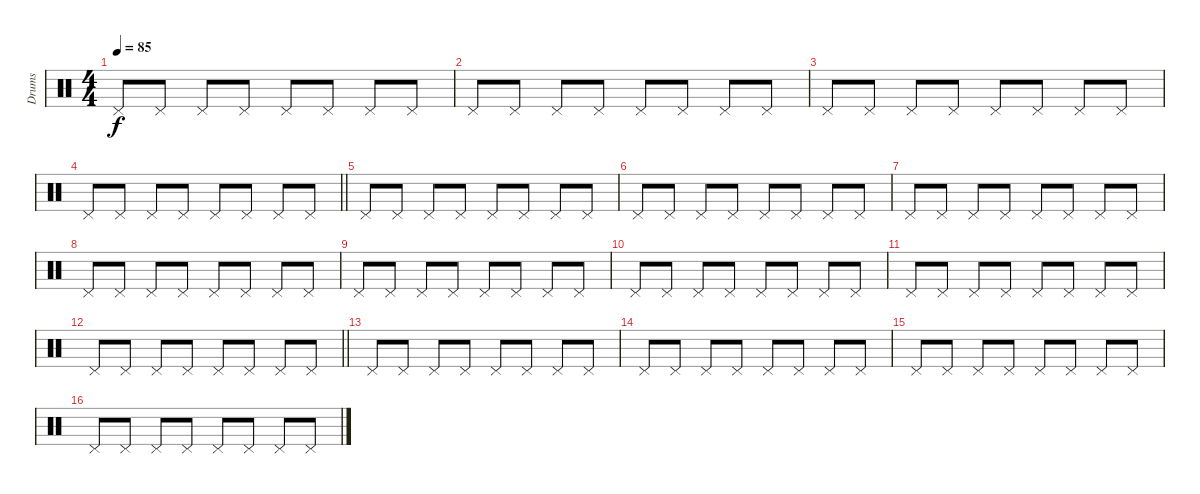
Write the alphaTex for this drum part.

\track ("Drums" "Drums") {solo instrument percussion}
\staff {score}
\articulation defaults
\ts (4 4)
\tempo 85
\clef neutral
\ks c "Pedal Hi-Hat (hit)".8{dy f} "Pedal Hi-Hat (hit)".8 "Pedal Hi-Hat (hit)".8 "Pedal Hi-Hat (hit)".8 "Pedal Hi-Hat (hit)".8 "Pedal Hi-Hat (hit)".8 "Pedal Hi-Hat (hit)".8 "Pedal Hi-Hat (hit)".8
|
"Pedal Hi-Hat (hit)".8 "Pedal Hi-Hat (hit)".8 "Pedal Hi-Hat (hit)".8 "Pedal Hi-Hat (hit)".8 "Pedal Hi-Hat (hit)".8 "Pedal Hi-Hat (hit)".8 "Pedal Hi-Hat (hit)".8 "Pedal Hi-Hat (hit)".8 |
"Pedal Hi-Hat (hit)".8 "Pedal Hi-Hat (hit)".8 "Pedal Hi-Hat (hit)".8 "Pedal Hi-Hat (hit)".8 "Pedal Hi-Hat (hit)".8 "Pedal Hi-Hat (hit)".8 "Pedal Hi-Hat (hit)".8 "Pedal Hi-Hat (hit)".8 |
\barLineRight lightlight "Pedal Hi-Hat (hit)".8 "Pedal Hi-Hat (hit)".8 "Pedal Hi-Hat (hit)".8 "Pedal Hi-Hat (hit)".8 "Pedal Hi-Hat (hit)".8 "Pedal Hi-Hat (hit)".8 "Pedal Hi-Hat (hit)".8 "Pedal Hi-Hat (hit)".8
|
\section ("" "")
"Pedal Hi-Hat (hit)".8 "Pedal Hi-Hat (hit)".8 "Pedal Hi-Hat (hit)".8 "Pedal Hi-Hat (hit)".8 "Pedal Hi-Hat (hit)".8 "Pedal Hi-Hat (hit)".8 "Pedal Hi-Hat (hit)".8 "Pedal Hi-Hat (hit)".8 |
"Pedal Hi-Hat (hit)".8 "Pedal Hi-Hat (hit)".8 "Pedal Hi-Hat (hit)".8 "Pedal Hi-Hat (hit)".8 "Pedal Hi-Hat (hit)".8 "Pedal Hi-Hat (hit)".8 "Pedal Hi-Hat (hit)".8 "Pedal Hi-Hat (hit)".8 |
"Pedal Hi-Hat (hit)".8 "Pedal Hi-Hat (hit)".8 "Pedal Hi-Hat (hit)".8 "Pedal Hi-Hat (hit)".8 "Pedal Hi-Hat (hit)".8 "Pedal Hi-Hat (hit)".8 "Pedal Hi-Hat (hit)".8 "Pedal Hi-Hat (hit)".8 |
"Pedal Hi-Hat (hit)".8 "Pedal Hi-Hat (hit)".8 "Pedal Hi-Hat (hit)".8 "Pedal Hi-Hat (hit)".8 "Pedal Hi-Hat (hit)".8 "Pedal Hi-Hat (hit)".8 "Pedal Hi-Hat (hit)".8 "Pedal Hi-Hat (hit)".8 |
"Pedal Hi-Hat (hit)".8 "Pedal Hi-Hat (hit)".8 "Pedal Hi-Hat (hit)".8 "Pedal Hi-Hat (hit)".8 "Pedal Hi-Hat (hit)".8 "Pedal Hi-Hat (hit)".8 "Pedal Hi-Hat (hit)".8 "Pedal Hi-Hat (hit)".8 |
"Pedal Hi-Hat (hit)".8 "Pedal Hi-Hat (hit)".8 "Pedal Hi-Hat (hit)".8 "Pedal Hi-Hat (hit)".8 "Pedal Hi-Hat (hit)".8 "Pedal Hi-Hat (hit)".8 "Pedal Hi-Hat (hit)".8 "Pedal Hi-Hat (hit)".8 |
"Pedal Hi-Hat (hit)".8 "Pedal Hi-Hat (hit)".8 "Pedal Hi-Hat (hit)".8 "Pedal Hi-Hat (hit)".8 "Pedal Hi-Hat (hit)".8 "Pedal Hi-Hat (hit)".8 "Pedal Hi-Hat (hit)".8 "Pedal Hi-Hat (hit)".8 |
\barLineRight lightlight "Pedal Hi-Hat (hit)".8 "Pedal Hi-Hat (hit)".8 "Pedal Hi-Hat (hit)".8 "Pedal Hi-Hat (hit)".8 "Pedal Hi-Hat (hit)".8 "Pedal Hi-Hat (hit)".8 "Pedal Hi-Hat (hit)".8 "Pedal Hi-Hat (hit)".8
|
"Pedal Hi-Hat (hit)".8 "Pedal Hi-Hat (hit)".8 "Pedal Hi-Hat (hit)".8 "Pedal Hi-Hat (hit)".8 "Pedal Hi-Hat (hit)".8 "Pedal Hi-Hat (hit)".8 "Pedal Hi-Hat (hit)".8 "Pedal Hi-Hat (hit)".8 |
"Pedal Hi-Hat (hit)".8 "Pedal Hi-Hat (hit)".8 "Pedal Hi-Hat (hit)".8 "Pedal Hi-Hat (hit)".8 "Pedal Hi-Hat (hit)".8 "Pedal Hi-Hat (hit)".8 "Pedal Hi-Hat (hit)".8 "Pedal Hi-Hat (hit)".8 |
"Pedal Hi-Hat (hit)".8 "Pedal Hi-Hat (hit)".8 "Pedal Hi-Hat (hit)".8 "Pedal Hi-Hat (hit)".8 "Pedal Hi-Hat (hit)".8 "Pedal Hi-Hat (hit)".8 "Pedal Hi-Hat (hit)".8 "Pedal Hi-Hat (hit)".8 |
"Pedal Hi-Hat (hit)".8 "Pedal Hi-Hat (hit)".8 "Pedal Hi-Hat (hit)".8 "Pedal Hi-Hat (hit)".8 "Pedal Hi-Hat (hit)".8 "Pedal Hi-Hat (hit)".8 "Pedal Hi-Hat (hit)".8 "Pedal Hi-Hat (hit)".8
